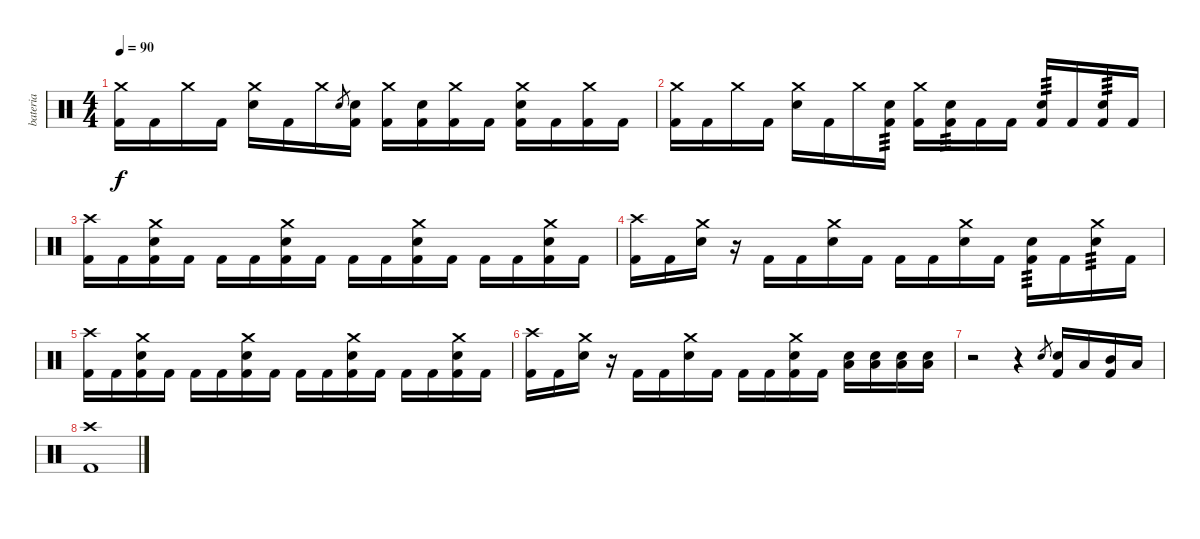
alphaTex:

\track ("bateria" "bateria") {instrument percussion}
\staff {score}
\articulation defaults
\ts (4 4)
\tempo 90
\clef neutral
\ks c
("Crash medium (hit)" "Kick (hit) 2").16{dy f} "Kick (hit) 2".16 "Crash medium (hit)".16 "Kick (hit) 2".16 ("Crash medium (hit)" "Electric Snare (hit)").16 "Kick (hit) 2".16 "Crash medium (hit)".16 "Electric Snare (hit)".8{gr} ("Electric Snare (hit)" "Kick (hit) 2").16 ("Crash medium (hit)" "Kick (hit) 2").16 ("Electric Snare (hit)" "Kick (hit) 2").16 ("Crash medium (hit)" "Kick (hit) 2").16 "Kick (hit) 2".16 ("Crash medium (hit)" "Electric Snare (hit)" "Kick (hit) 2").16 "Kick (hit) 2".16 ("Crash medium (hit)" "Kick (hit) 2").16 "Kick (hit) 2".16 |
("Crash medium (hit)" "Kick (hit) 2").16 "Kick (hit) 2".16 "Crash medium (hit)".16 "Kick (hit) 2".16 ("Crash medium (hit)" "Electric Snare (hit)").16 "Kick (hit) 2".16 "Crash medium (hit)".16 ("Electric Snare (hit)" "Kick (hit) 2").16{tp 3} ("Crash medium (hit)" "Kick (hit) 2").16 ("Electric Snare (hit)" "Kick (hit) 2").16{tp 3} "Kick (hit) 2".16 "Kick (hit) 2".16 ("Electric Snare (hit)" "Kick (hit) 2").16{tp 3} "Kick (hit) 2".16 ("Electric Snare (hit)" "Kick (hit) 2").16{tp 3} "Kick (hit) 2".16 |
("Crash high (hit)" "Kick (hit) 2").16 "Kick (hit) 2".16 ("Crash medium (hit)" "Electric Snare (hit)" "Kick (hit) 2").16 "Kick (hit) 2".16 "Kick (hit) 2".16 "Kick (hit) 2".16 ("Crash medium (hit)" "Electric Snare (hit)" "Kick (hit) 2").16 "Kick (hit) 2".16 "Kick (hit) 2".16 "Kick (hit) 2".16 ("Crash medium (hit)" "Electric Snare (hit)" "Kick (hit) 2").16 "Kick (hit) 2".16 "Kick (hit) 2".16 "Kick (hit) 2".16 ("Crash medium (hit)" "Electric Snare (hit)" "Kick (hit) 2").16 "Kick (hit) 2".16 |
("Crash high (hit)" "Kick (hit) 2").16 "Kick (hit) 2".16 ("Crash medium (hit)" "Electric Snare (hit)").16 r.16 "Kick (hit) 2".16 "Kick (hit) 2".16 ("Crash medium (hit)" "Electric Snare (hit)").16 "Kick (hit) 2".16 "Kick (hit) 2".16 "Kick (hit) 2".16 ("Crash medium (hit)" "Electric Snare (hit)").16 "Kick (hit) 2".16 ("Electric Snare (hit)" "Kick (hit) 2").16{tp 3} "Kick (hit) 2".16 ("Crash medium (hit)" "Electric Snare (hit)").16{tp 3} "Kick (hit) 2".16 |
("Crash high (hit)" "Kick (hit) 2").16 "Kick (hit) 2".16 ("Crash medium (hit)" "Electric Snare (hit)" "Kick (hit) 2").16 "Kick (hit) 2".16 "Kick (hit) 2".16 "Kick (hit) 2".16 ("Crash medium (hit)" "Electric Snare (hit)" "Kick (hit) 2").16 "Kick (hit) 2".16 "Kick (hit) 2".16 "Kick (hit) 2".16 ("Crash medium (hit)" "Electric Snare (hit)" "Kick (hit) 2").16 "Kick (hit) 2".16 "Kick (hit) 2".16 "Kick (hit) 2".16 ("Crash medium (hit)" "Electric Snare (hit)" "Kick (hit) 2").16 "Kick (hit) 2".16 |
("Crash high (hit)" "Kick (hit) 2").16 "Kick (hit) 2".16 ("Crash medium (hit)" "Electric Snare (hit)").16 r.16 "Kick (hit) 2".16 "Kick (hit) 2".16 ("Crash medium (hit)" "Electric Snare (hit)").16 "Kick (hit) 2".16 "Kick (hit) 2".16 "Kick (hit) 2".16 ("Crash medium (hit)" "Electric Snare (hit)" "Kick (hit) 2").16 "Kick (hit) 2".16 ("Electric Snare (hit)" "Low Floor Tom (hit)").16 ("Electric Snare (hit)" "Low Floor Tom (hit)").16 ("Electric Snare (hit)" "Low Floor Tom (hit)").16 ("Electric Snare (hit)" "Low Floor Tom (hit)").16 |
r.2 r.4 "Electric Snare (hit)".8{gr} ("Electric Snare (hit)" "Kick (hit) 2").16 "Low Tom (hit)".16 ("Mid Tom (hit)" "Kick (hit) 2").16 "Low Tom (hit)".16 |
("Crash high (hit)" "Kick (hit) 2").1
